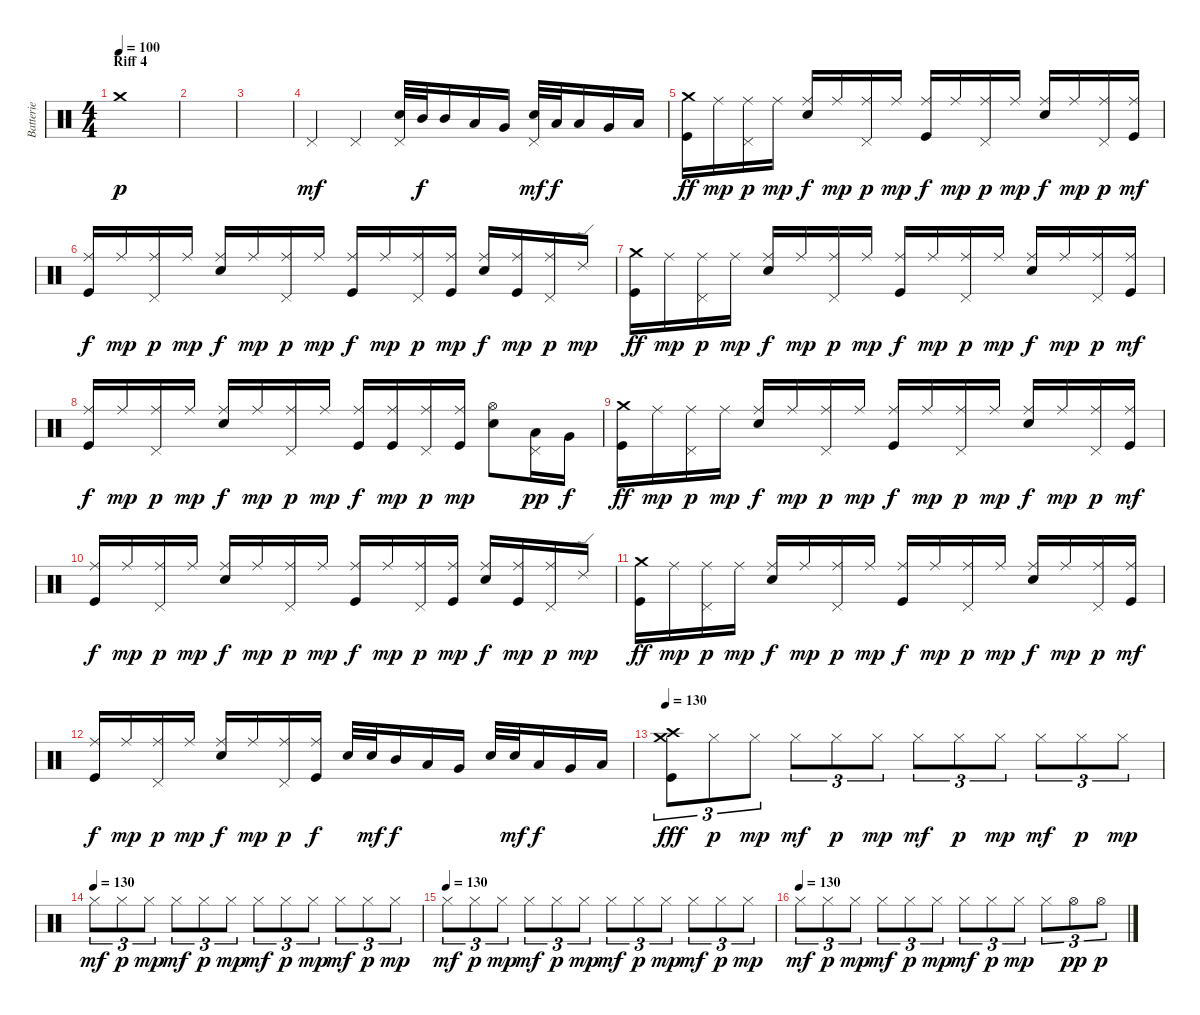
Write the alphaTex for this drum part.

\track ("Batterie" "Batterie") {instrument percussion}
\staff {score}
\articulation defaults
\ts (4 4)
\section ("" "Riff 4")
\tempo 100
\clef neutral
\ks c "Crash medium (hit)".1{dy p}
|
|
|
"Pedal Hi-Hat (hit)".4{dy mf} "Pedal Hi-Hat (hit)".4 ("Pedal Hi-Hat (hit)" "Snare (hit) 2").32 "Mid Tom (hit)".32{dy f} "Mid Tom (hit)".16 "Low Tom (hit)".16 "Very Low Tom (hit)".16 ("Pedal Hi-Hat (hit)" "Snare (hit) 2").32{dy mf} "Low Tom (hit)".32{dy f} "Low Tom (hit)".16 "Very Low Tom (hit)".16 "Low Floor Tom (hit)".16 |
("Crash medium (hit)" "Kick (hit)").16{dy ff} "Ride (middle)".16{dy mp} ("Ride (middle)" "Pedal Hi-Hat (hit)").16{dy p} "Ride (middle)".16{dy mp} ("Ride (middle)" "Snare (hit) 2").16{dy f} "Ride (middle)".16{dy mp} ("Ride (middle)" "Pedal Hi-Hat (hit)").16{dy p} "Ride (middle)".16{dy mp} ("Ride (middle)" "Kick (hit)").16{dy f} "Ride (middle)".16{dy mp} ("Ride (middle)" "Pedal Hi-Hat (hit)").16{dy p} "Ride (middle)".16{dy mp} ("Ride (middle)" "Snare (hit) 2").16{dy f} "Ride (middle)".16{dy mp} ("Ride (middle)" "Pedal Hi-Hat (hit)").16{dy p} ("Ride (middle)" "Kick (hit)").16{dy mf} |
("Ride (middle)" "Kick (hit)").16{dy f} "Ride (middle)".16{dy mp} ("Ride (middle)" "Pedal Hi-Hat (hit)").16{dy p} "Ride (middle)".16{dy mp} ("Ride (middle)" "Snare (hit) 2").16{dy f} "Ride (middle)".16{dy mp} ("Ride (middle)" "Pedal Hi-Hat (hit)").16{dy p} "Ride (middle)".16{dy mp} ("Ride (middle)" "Kick (hit)").16{dy f} "Ride (middle)".16{dy mp} ("Ride (middle)" "Pedal Hi-Hat (hit)").16{dy p} ("Ride (middle)" "Kick (hit)").16{dy mp} ("Ride (middle)" "Snare (hit) 2").16{dy f} ("Ride (middle)" "Kick (hit)").16{dy mp} ("Ride (middle)" "Pedal Hi-Hat (hit)").16{dy p} "Ride (edge) 2".16{dy mp} |
("Crash medium (hit)" "Kick (hit)").16{dy ff} "Ride (middle)".16{dy mp} ("Ride (middle)" "Pedal Hi-Hat (hit)").16{dy p} "Ride (middle)".16{dy mp} ("Ride (middle)" "Snare (hit) 2").16{dy f} "Ride (middle)".16{dy mp} ("Ride (middle)" "Pedal Hi-Hat (hit)").16{dy p} "Ride (middle)".16{dy mp} ("Ride (middle)" "Kick (hit)").16{dy f} "Ride (middle)".16{dy mp} ("Ride (middle)" "Pedal Hi-Hat (hit)").16{dy p} "Ride (middle)".16{dy mp} ("Ride (middle)" "Snare (hit) 2").16{dy f} "Ride (middle)".16{dy mp} ("Ride (middle)" "Pedal Hi-Hat (hit)").16{dy p} ("Ride (middle)" "Kick (hit)").16{dy mf} |
("Ride (middle)" "Kick (hit)").16{dy f} "Ride (middle)".16{dy mp} ("Ride (middle)" "Pedal Hi-Hat (hit)").16{dy p} "Ride (middle)".16{dy mp} ("Ride (middle)" "Snare (hit) 2").16{dy f} "Ride (middle)".16{dy mp} ("Ride (middle)" "Pedal Hi-Hat (hit)").16{dy p} "Ride (middle)".16{dy mp} ("Ride (middle)" "Kick (hit)").16{dy f} ("Ride (middle)" "Kick (hit)").16{dy mp} ("Ride (middle)" "Pedal Hi-Hat (hit)").16{dy p} ("Ride (middle)" "Kick (hit)").16{dy mp} ("Hi-Hat (open)" "Snare (hit) 2").8 ("Pedal Hi-Hat (hit)" "Low Tom (hit)").16{dy pp} "Very Low Tom (hit)".16{dy f} |
("Crash medium (hit)" "Kick (hit)").16{dy ff} "Ride (middle)".16{dy mp} ("Ride (middle)" "Pedal Hi-Hat (hit)").16{dy p} "Ride (middle)".16{dy mp} ("Ride (middle)" "Snare (hit) 2").16{dy f} "Ride (middle)".16{dy mp} ("Ride (middle)" "Pedal Hi-Hat (hit)").16{dy p} "Ride (middle)".16{dy mp} ("Ride (middle)" "Kick (hit)").16{dy f} "Ride (middle)".16{dy mp} ("Ride (middle)" "Pedal Hi-Hat (hit)").16{dy p} "Ride (middle)".16{dy mp} ("Ride (middle)" "Snare (hit) 2").16{dy f} "Ride (middle)".16{dy mp} ("Ride (middle)" "Pedal Hi-Hat (hit)").16{dy p} ("Ride (middle)" "Kick (hit)").16{dy mf} |
("Ride (middle)" "Kick (hit)").16{dy f} "Ride (middle)".16{dy mp} ("Ride (middle)" "Pedal Hi-Hat (hit)").16{dy p} "Ride (middle)".16{dy mp} ("Ride (middle)" "Snare (hit) 2").16{dy f} "Ride (middle)".16{dy mp} ("Ride (middle)" "Pedal Hi-Hat (hit)").16{dy p} "Ride (middle)".16{dy mp} ("Ride (middle)" "Kick (hit)").16{dy f} "Ride (middle)".16{dy mp} ("Ride (middle)" "Pedal Hi-Hat (hit)").16{dy p} ("Ride (middle)" "Kick (hit)").16{dy mp} ("Ride (middle)" "Snare (hit) 2").16{dy f} ("Ride (middle)" "Kick (hit)").16{dy mp} ("Ride (middle)" "Pedal Hi-Hat (hit)").16{dy p} "Ride (edge) 2".16{dy mp} |
("Crash medium (hit)" "Kick (hit)").16{dy ff} "Ride (middle)".16{dy mp} ("Ride (middle)" "Pedal Hi-Hat (hit)").16{dy p} "Ride (middle)".16{dy mp} ("Ride (middle)" "Snare (hit) 2").16{dy f} "Ride (middle)".16{dy mp} ("Ride (middle)" "Pedal Hi-Hat (hit)").16{dy p} "Ride (middle)".16{dy mp} ("Ride (middle)" "Kick (hit)").16{dy f} "Ride (middle)".16{dy mp} ("Ride (middle)" "Pedal Hi-Hat (hit)").16{dy p} "Ride (middle)".16{dy mp} ("Ride (middle)" "Snare (hit) 2").16{dy f} "Ride (middle)".16{dy mp} ("Ride (middle)" "Pedal Hi-Hat (hit)").16{dy p} ("Ride (middle)" "Kick (hit)").16{dy mf} |
("Ride (middle)" "Kick (hit)").16{dy f} "Ride (middle)".16{dy mp} ("Ride (middle)" "Pedal Hi-Hat (hit)").16{dy p} "Ride (middle)".16{dy mp} ("Ride (middle)" "Snare (hit) 2").16{dy f} "Ride (middle)".16{dy mp} ("Ride (middle)" "Pedal Hi-Hat (hit)").16{dy p} ("Ride (middle)" "Kick (hit)").16{dy f} "Snare (hit) 2".32 "Snare (hit) 2".32{dy mf} "Mid Tom (hit)".16{dy f} "Low Tom (hit)".16 "Very Low Tom (hit)".16 "Snare (hit) 2".32 "Snare (hit) 2".32{dy mf} "Low Tom (hit)".16{dy f} "Very Low Tom (hit)".16 "Low Floor Tom (hit)".16 |
\tempo 130
("Crash medium (hit)" "Crash high (hit)" "Kick (hit)").8{tu (3 2) dy fff} "Hi-Hat (closed)".8{tu (3 2) dy p} "Hi-Hat (closed)".8{tu (3 2) dy mp} "Hi-Hat (closed)".8{tu (3 2) dy mf} "Hi-Hat (closed)".8{tu (3 2) dy p} "Hi-Hat (closed)".8{tu (3 2) dy mp} "Hi-Hat (closed)".8{tu (3 2) dy mf} "Hi-Hat (closed)".8{tu (3 2) dy p} "Hi-Hat (closed)".8{tu (3 2) dy mp} "Hi-Hat (closed)".8{tu (3 2) dy mf} "Hi-Hat (closed)".8{tu (3 2) dy p} "Hi-Hat (closed)".8{tu (3 2) dy mp} |
\tempo (130)
"Hi-Hat (closed)".8{tu (3 2) dy mf} "Hi-Hat (closed)".8{tu (3 2) dy p} "Hi-Hat (closed)".8{tu (3 2) dy mp} "Hi-Hat (closed)".8{tu (3 2) dy mf} "Hi-Hat (closed)".8{tu (3 2) dy p} "Hi-Hat (closed)".8{tu (3 2) dy mp} "Hi-Hat (closed)".8{tu (3 2) dy mf} "Hi-Hat (closed)".8{tu (3 2) dy p} "Hi-Hat (closed)".8{tu (3 2) dy mp} "Hi-Hat (closed)".8{tu (3 2) dy mf} "Hi-Hat (closed)".8{tu (3 2) dy p} "Hi-Hat (closed)".8{tu (3 2) dy mp} |
\tempo (130)
"Hi-Hat (closed)".8{tu (3 2) dy mf} "Hi-Hat (closed)".8{tu (3 2) dy p} "Hi-Hat (closed)".8{tu (3 2) dy mp} "Hi-Hat (closed)".8{tu (3 2) dy mf} "Hi-Hat (closed)".8{tu (3 2) dy p} "Hi-Hat (closed)".8{tu (3 2) dy mp} "Hi-Hat (closed)".8{tu (3 2) dy mf} "Hi-Hat (closed)".8{tu (3 2) dy p} "Hi-Hat (closed)".8{tu (3 2) dy mp} "Hi-Hat (closed)".8{tu (3 2) dy mf} "Hi-Hat (closed)".8{tu (3 2) dy p} "Hi-Hat (closed)".8{tu (3 2) dy mp} |
\tempo (130)
"Hi-Hat (closed)".8{tu (3 2) dy mf} "Hi-Hat (closed)".8{tu (3 2) dy p} "Hi-Hat (closed)".8{tu (3 2) dy mp} "Hi-Hat (closed)".8{tu (3 2) dy mf} "Hi-Hat (closed)".8{tu (3 2) dy p} "Hi-Hat (closed)".8{tu (3 2) dy mp} "Hi-Hat (closed)".8{tu (3 2) dy mf} "Hi-Hat (closed)".8{tu (3 2) dy p} "Hi-Hat (closed)".8{tu (3 2) dy mp} "Hi-Hat (closed)".8{tu (3 2)} "Hi-Hat (open)".8{tu (3 2) dy pp} "Hi-Hat (open)".8{tu (3 2) dy p}
